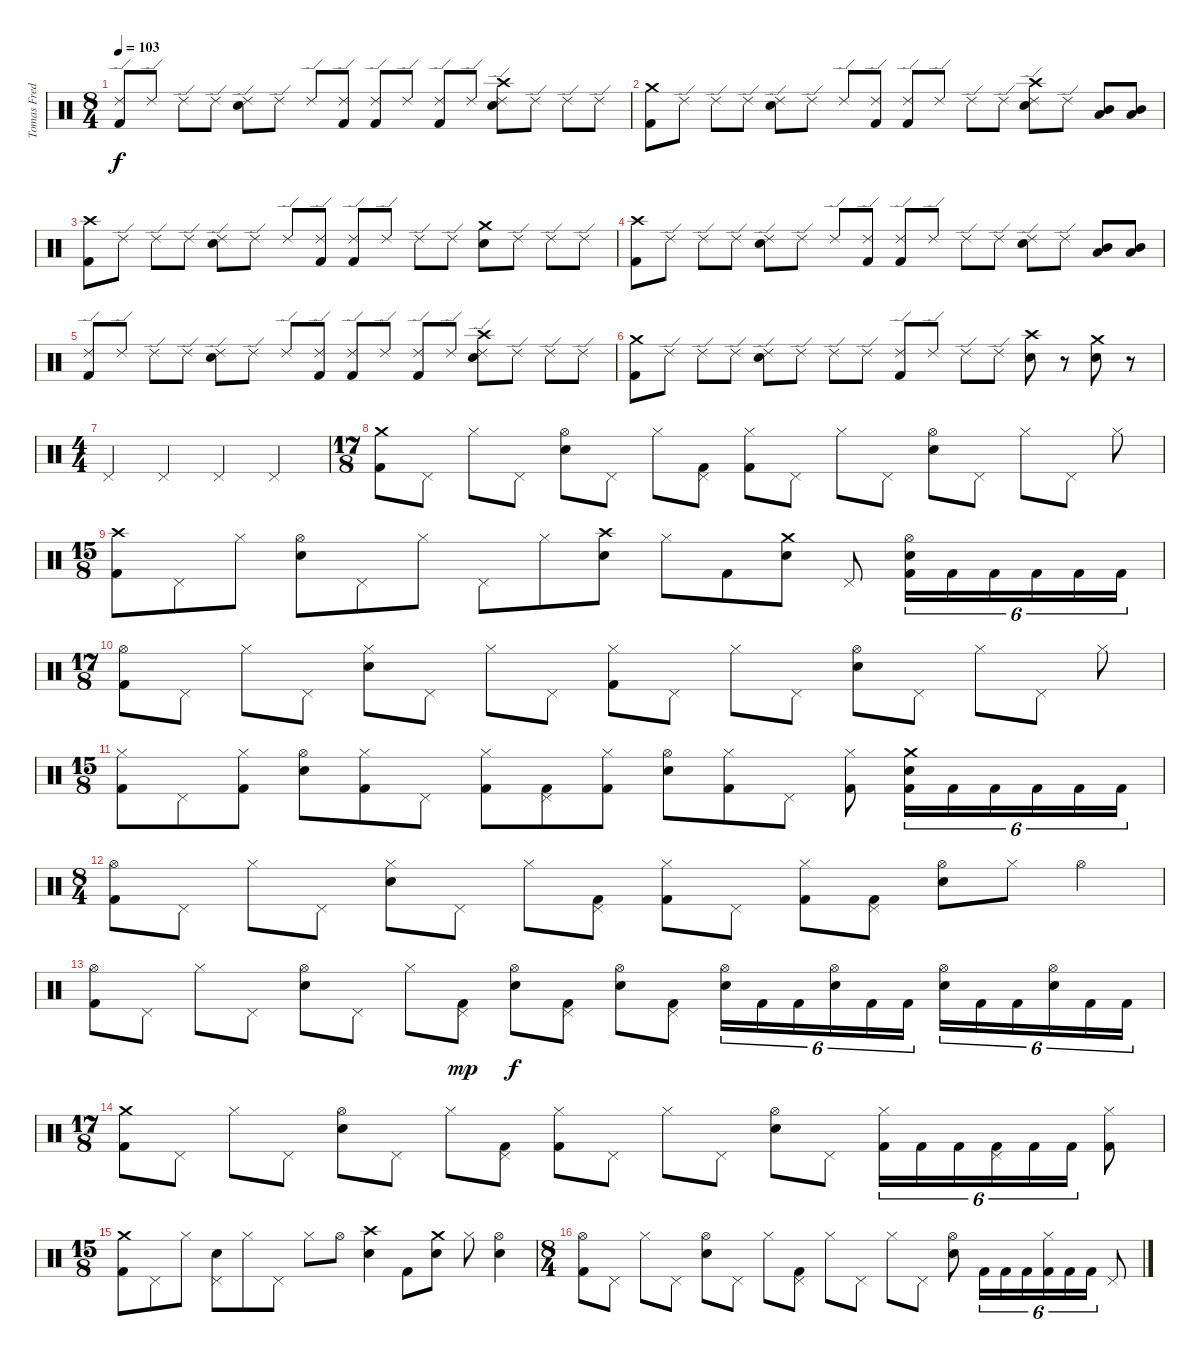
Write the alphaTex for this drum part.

\track ("Tomas Fredén - drums  " "Tomas Fred") {instrument percussion}
\staff {score}
\articulation defaults
\ts (8 4)
\tempo 103
\clef neutral
\ks c
("Ride (edge) 2" "Kick (hit) 2").8{dy f} "Ride (edge) 2".8 "Ride (edge) 2".8 "Ride (edge) 2".8 ("Ride (edge) 2" "Snare (hit) 2").8 "Ride (edge) 2".8 "Ride (edge) 2".8 ("Ride (edge) 2" "Kick (hit) 2").8 ("Ride (edge) 2" "Kick (hit) 2").8 "Ride (edge) 2".8 ("Ride (edge) 2" "Kick (hit) 2").8 "Ride (edge) 2".8 ("Ride (edge) 2" "Snare (hit) 2" "Crash high (hit)").8 "Ride (edge) 2".8 "Ride (edge) 2".8 "Ride (edge) 2".8 |
("Crash medium (hit)" "Kick (hit) 2").8 "Ride (edge) 2".8 "Ride (edge) 2".8 "Ride (edge) 2".8 ("Ride (edge) 2" "Snare (hit) 2").8 "Ride (edge) 2".8 "Ride (edge) 2".8 ("Ride (edge) 2" "Kick (hit) 2").8 ("Ride (edge) 2" "Kick (hit) 2").8 "Ride (edge) 2".8 "Ride (edge) 2".8 "Ride (edge) 2".8 ("Ride (edge) 2" "Snare (hit) 2" "Crash high (hit)").8 "Ride (edge) 2".8 ("Mid Tom (hit)" "Low Tom (hit)").8 ("Mid Tom (hit)" "Low Tom (hit)").8 |
("Crash high (hit)" "Kick (hit) 2").8 "Ride (edge) 2".8 "Ride (edge) 2".8 "Ride (edge) 2".8 ("Ride (edge) 2" "Snare (hit) 2").8 "Ride (edge) 2".8 "Ride (edge) 2".8 ("Ride (edge) 2" "Kick (hit) 2").8 ("Ride (edge) 2" "Kick (hit) 2").8 "Ride (edge) 2".8 "Ride (edge) 2".8 "Ride (edge) 2".8 ("Crash medium (hit)" "Snare (hit) 2").8 "Ride (edge) 2".8 "Ride (edge) 2".8 "Ride (edge) 2".8 |
("Crash high (hit)" "Kick (hit) 2").8 "Ride (edge) 2".8 "Ride (edge) 2".8 "Ride (edge) 2".8 ("Ride (edge) 2" "Snare (hit) 2").8 "Ride (edge) 2".8 "Ride (edge) 2".8 ("Ride (edge) 2" "Kick (hit) 2").8 ("Ride (edge) 2" "Kick (hit) 2").8 "Ride (edge) 2".8 "Ride (edge) 2".8 "Ride (edge) 2".8 ("Ride (edge) 2" "Snare (hit) 2").8 "Ride (edge) 2".8 ("Mid Tom (hit)" "Low Tom (hit)").8 ("Mid Tom (hit)" "Low Tom (hit)").8 |
("Ride (edge) 2" "Kick (hit) 2").8 "Ride (edge) 2".8 "Ride (edge) 2".8 "Ride (edge) 2".8 ("Ride (edge) 2" "Snare (hit) 2").8 "Ride (edge) 2".8 "Ride (edge) 2".8 ("Ride (edge) 2" "Kick (hit) 2").8 ("Ride (edge) 2" "Kick (hit) 2").8 "Ride (edge) 2".8 ("Ride (edge) 2" "Kick (hit) 2").8 "Ride (edge) 2".8 ("Ride (edge) 2" "Snare (hit) 2" "Crash high (hit)").8 "Ride (edge) 2".8 "Ride (edge) 2".8 "Ride (edge) 2".8 |
("Crash medium (hit)" "Kick (hit) 2").8 "Ride (edge) 2".8 "Ride (edge) 2".8 "Ride (edge) 2".8 ("Ride (edge) 2" "Snare (hit) 2").8 "Ride (edge) 2".8 "Ride (edge) 2".8 "Ride (edge) 2".8 ("Ride (edge) 2" "Kick (hit) 2").8 "Ride (edge) 2".8 "Ride (edge) 2".8 "Ride (edge) 2".8 ("Snare (hit) 2" "Crash high (hit)").8 r.8 ("Snare (hit) 2" "Crash medium (hit)").8 r.8 |
\ts (4 4)
"Pedal Hi-Hat (hit)".4 "Pedal Hi-Hat (hit)".4 "Pedal Hi-Hat (hit)".4 "Pedal Hi-Hat (hit)".4 |
\ts (17 8)
("Crash medium (hit)" "Kick (hit) 2").8 "Pedal Hi-Hat (hit)".8 "Hi-Hat (closed)".8 "Pedal Hi-Hat (hit)".8 ("Hi-Hat (open)" "Snare (hit) 2").8 "Pedal Hi-Hat (hit)".8 "Hi-Hat (closed)".8 ("Pedal Hi-Hat (hit)" "Kick (hit) 2").8 ("Hi-Hat (closed)" "Kick (hit) 2").8 "Pedal Hi-Hat (hit)".8 "Hi-Hat (closed)".8 "Pedal Hi-Hat (hit)".8 ("Hi-Hat (open)" "Snare (hit) 2").8 "Pedal Hi-Hat (hit)".8 "Hi-Hat (closed)".8 "Pedal Hi-Hat (hit)".8 "Hi-Hat (closed)".8 |
\ts (15 8)
("Crash high (hit)" "Kick (hit) 2").8 "Pedal Hi-Hat (hit)".8 "Hi-Hat (closed)".8 ("Hi-Hat (open)" "Snare (hit) 2").8 "Pedal Hi-Hat (hit)".8 "Hi-Hat (closed)".8 "Pedal Hi-Hat (hit)".8 "Hi-Hat (closed)".8 ("Crash high (hit)" "Snare (hit) 2").8 "Hi-Hat (closed)".8 "Kick (hit) 2".8 ("Crash medium (hit)" "Snare (hit) 2").8 "Pedal Hi-Hat (hit)".8 ("Hi-Hat (open)" "Snare (hit) 2" "Kick (hit) 2").16{tu (6 4)} "Kick (hit) 2".16{tu (6 4)} "Kick (hit) 2".16{tu (6 4)} "Kick (hit) 2".16{tu (6 4)} "Kick (hit) 2".16{tu (6 4)} "Kick (hit) 2".16{tu (6 4)} |
\ts (17 8)
("Hi-Hat (open)" "Kick (hit) 2").8 "Pedal Hi-Hat (hit)".8 "Hi-Hat (closed)".8 "Pedal Hi-Hat (hit)".8 ("Hi-Hat (closed)" "Snare (hit) 2").8 "Pedal Hi-Hat (hit)".8 "Hi-Hat (closed)".8 "Pedal Hi-Hat (hit)".8 ("Hi-Hat (closed)" "Kick (hit) 2").8 "Pedal Hi-Hat (hit)".8 "Hi-Hat (closed)".8 "Pedal Hi-Hat (hit)".8 ("Hi-Hat (open)" "Snare (hit) 2").8 "Pedal Hi-Hat (hit)".8 "Hi-Hat (closed)".8 "Pedal Hi-Hat (hit)".8 "Hi-Hat (closed)".8 |
\ts (15 8)
("Hi-Hat (closed)" "Kick (hit) 2").8 "Pedal Hi-Hat (hit)".8 ("Hi-Hat (closed)" "Kick (hit) 2").8 ("Hi-Hat (open)" "Snare (hit) 2").8 ("Hi-Hat (closed)" "Kick (hit) 2").8 "Pedal Hi-Hat (hit)".8 ("Hi-Hat (closed)" "Kick (hit) 2").8 ("Kick (hit) 2" "Pedal Hi-Hat (hit)").8 ("Hi-Hat (closed)" "Kick (hit) 2").8 ("Hi-Hat (open)" "Snare (hit) 2").8 ("Hi-Hat (closed)" "Kick (hit) 2").8 "Pedal Hi-Hat (hit)".8 ("Hi-Hat (closed)" "Kick (hit) 2").8 ("Crash medium (hit)" "Snare (hit) 2" "Kick (hit) 2").16{tu (6 4)} "Kick (hit) 2".16{tu (6 4)} "Kick (hit) 2".16{tu (6 4)} "Kick (hit) 2".16{tu (6 4)} "Kick (hit) 2".16{tu (6 4)} "Kick (hit) 2".16{tu (6 4)} |
\ts (8 4)
("Hi-Hat (open)" "Kick (hit) 2").8 "Pedal Hi-Hat (hit)".8 "Hi-Hat (closed)".8 "Pedal Hi-Hat (hit)".8 ("Hi-Hat (closed)" "Snare (hit) 2").8 "Pedal Hi-Hat (hit)".8 "Hi-Hat (closed)".8 ("Pedal Hi-Hat (hit)" "Kick (hit) 2").8 ("Hi-Hat (closed)" "Kick (hit) 2").8 "Pedal Hi-Hat (hit)".8 ("Hi-Hat (closed)" "Kick (hit) 2").8 ("Kick (hit) 2" "Pedal Hi-Hat (hit)").8 ("Hi-Hat (open)" "Snare (hit) 2").8 "Hi-Hat (closed)".8 "Hi-Hat (open)".4 |
("Hi-Hat (open)" "Kick (hit) 2").8 "Pedal Hi-Hat (hit)".8 "Hi-Hat (closed)".8 "Pedal Hi-Hat (hit)".8 ("Hi-Hat (open)" "Snare (hit) 2").8 "Pedal Hi-Hat (hit)".8 "Hi-Hat (closed)".8 ("Pedal Hi-Hat (hit)" "Kick (hit) 2").8{dy mp} ("Hi-Hat (open)" "Snare (hit) 2").8{dy f} ("Pedal Hi-Hat (hit)" "Kick (hit) 2").8 ("Hi-Hat (open)" "Snare (hit) 2").8 ("Pedal Hi-Hat (hit)" "Kick (hit) 2").8 ("Hi-Hat (open)" "Snare (hit) 2").16{tu (6 4)} "Kick (hit) 2".16{tu (6 4)} "Kick (hit) 2".16{tu (6 4)} ("Hi-Hat (open)" "Snare (hit) 2").16{tu (6 4)} "Kick (hit) 2".16{tu (6 4)} "Kick (hit) 2".16{tu (6 4)} ("Hi-Hat (open)" "Snare (hit) 2").16{tu (6 4)} "Kick (hit) 2".16{tu (6 4)} "Kick (hit) 2".16{tu (6 4)} ("Hi-Hat (open)" "Snare (hit) 2").16{tu (6 4)} "Kick (hit) 2".16{tu (6 4)} "Kick (hit) 2".16{tu (6 4)} |
\ts (17 8)
("Crash medium (hit)" "Kick (hit) 2").8 "Pedal Hi-Hat (hit)".8 "Hi-Hat (closed)".8 "Pedal Hi-Hat (hit)".8 ("Hi-Hat (open)" "Snare (hit) 2").8 "Pedal Hi-Hat (hit)".8 "Hi-Hat (closed)".8 ("Pedal Hi-Hat (hit)" "Kick (hit) 2").8 ("Hi-Hat (closed)" "Kick (hit) 2").8 "Pedal Hi-Hat (hit)".8 "Hi-Hat (closed)".8 "Pedal Hi-Hat (hit)".8 ("Hi-Hat (open)" "Snare (hit) 2").8 "Pedal Hi-Hat (hit)".8 ("Hi-Hat (closed)" "Kick (hit) 2").16{tu (6 4)} "Kick (hit) 2".16{tu (6 4)} "Kick (hit) 2".16{tu (6 4)} ("Pedal Hi-Hat (hit)" "Kick (hit) 2").16{tu (6 4)} "Kick (hit) 2".16{tu (6 4)} "Kick (hit) 2".16{tu (6 4)} ("Hi-Hat (closed)" "Kick (hit) 2").8 |
\ts (15 8)
("Crash medium (hit)" "Kick (hit) 2").8 "Pedal Hi-Hat (hit)".8 "Hi-Hat (closed)".8 ("Snare (hit) 2" "Pedal Hi-Hat (hit)").8 "Hi-Hat (closed)".8 "Pedal Hi-Hat (hit)".8 "Hi-Hat (closed)".8 "Hi-Hat (open)".8 ("Crash high (hit)" "Electric Snare (hit)").4 "Kick (hit) 2".8 ("Crash medium (hit)" "Electric Snare (hit)").8 "Hi-Hat (closed)".8 ("Hi-Hat (open)" "Snare (hit) 2").4 |
\ts (8 4)
("Hi-Hat (open)" "Kick (hit) 2").8 "Pedal Hi-Hat (hit)".8 "Hi-Hat (closed)".8 "Pedal Hi-Hat (hit)".8 ("Hi-Hat (open)" "Snare (hit) 2").8 "Pedal Hi-Hat (hit)".8 "Hi-Hat (closed)".8 ("Pedal Hi-Hat (hit)" "Kick (hit) 2").8 "Hi-Hat (closed)".8 "Pedal Hi-Hat (hit)".8 "Hi-Hat (closed)".8 "Pedal Hi-Hat (hit)".8 ("Hi-Hat (open)" "Snare (hit) 2").8 "Kick (hit) 2".16{tu (6 4)} "Kick (hit) 2".16{tu (6 4)} "Kick (hit) 2".16{tu (6 4)} ("Hi-Hat (closed)" "Kick (hit) 2").16{tu (6 4)} "Kick (hit) 2".16{tu (6 4)} "Kick (hit) 2".16{tu (6 4)} "Pedal Hi-Hat (hit)".8
